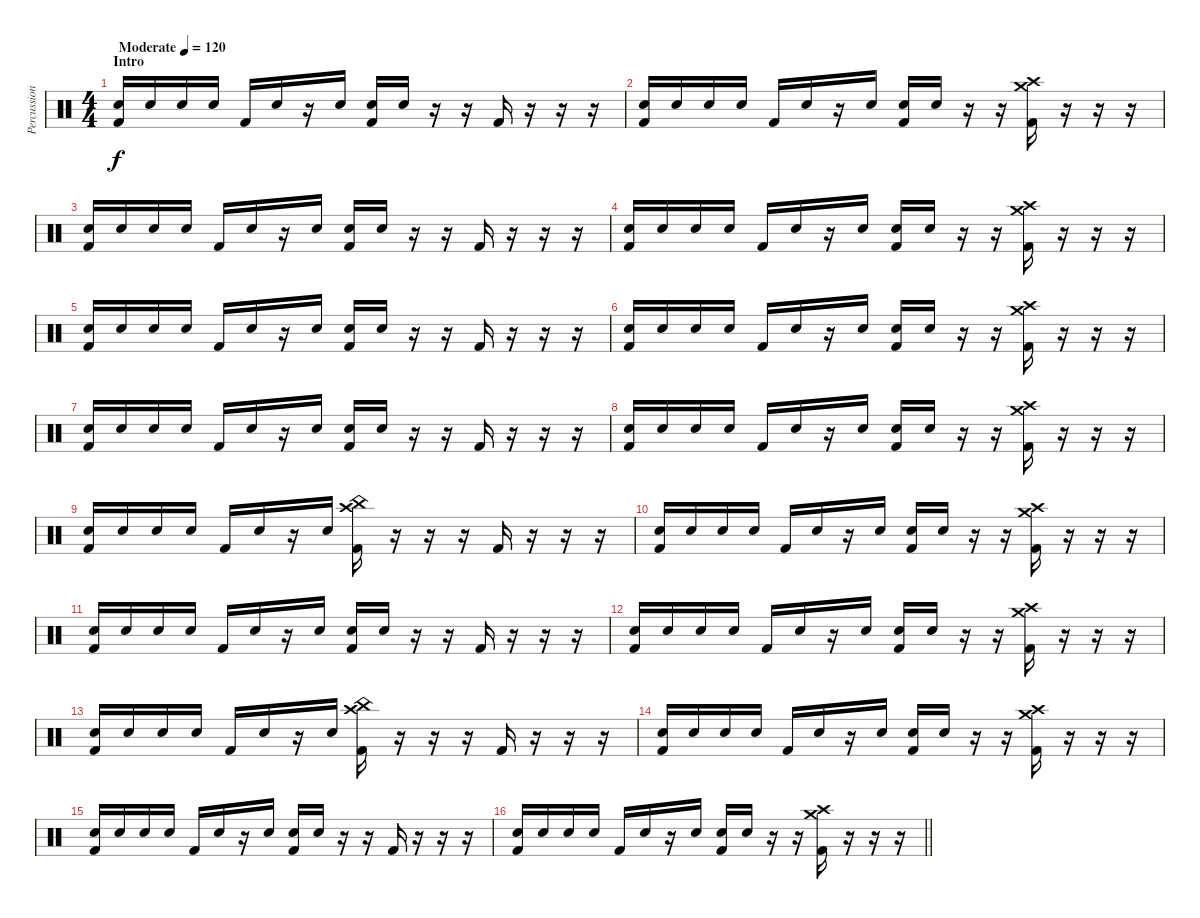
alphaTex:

\track ("Percussion" "Percussion") {instrument percussion}
\staff {score}
\articulation defaults
\ts (4 4)
\section ("" "Intro")
\tempo (120 "Moderate")
\clef neutral
\ks c
("Snare (hit) 2" "Kick (hit) 2").16{dy f} "Snare (hit) 2".16 "Snare (hit) 2".16 "Snare (hit) 2".16 "Kick (hit) 2".16 "Snare (hit) 2".16 r.16 "Snare (hit) 2".16 ("Snare (hit) 2" "Kick (hit) 2").16 "Snare (hit) 2".16 r.16 r.16 "Kick (hit) 2".16 r.16 r.16 r.16 |
("Snare (hit) 2" "Kick (hit) 2").16 "Snare (hit) 2".16 "Snare (hit) 2".16 "Snare (hit) 2".16 "Kick (hit) 2".16 "Snare (hit) 2".16 r.16 "Snare (hit) 2".16 ("Snare (hit) 2" "Kick (hit) 2").16 "Snare (hit) 2".16 r.16 r.16 ("Crash high (hit)" "Crash medium (hit)" "Kick (hit) 2").16 r.16 r.16 r.16 |
("Snare (hit) 2" "Kick (hit) 2").16 "Snare (hit) 2".16 "Snare (hit) 2".16 "Snare (hit) 2".16 "Kick (hit) 2".16 "Snare (hit) 2".16 r.16 "Snare (hit) 2".16 ("Snare (hit) 2" "Kick (hit) 2").16 "Snare (hit) 2".16 r.16 r.16 "Kick (hit) 2".16 r.16 r.16 r.16 |
("Snare (hit) 2" "Kick (hit) 2").16 "Snare (hit) 2".16 "Snare (hit) 2".16 "Snare (hit) 2".16 "Kick (hit) 2".16 "Snare (hit) 2".16 r.16 "Snare (hit) 2".16 ("Snare (hit) 2" "Kick (hit) 2").16 "Snare (hit) 2".16 r.16 r.16 ("Crash high (hit)" "Crash medium (hit)" "Kick (hit) 2").16 r.16 r.16 r.16 |
("Snare (hit) 2" "Kick (hit) 2").16 "Snare (hit) 2".16 "Snare (hit) 2".16 "Snare (hit) 2".16 "Kick (hit) 2".16 "Snare (hit) 2".16 r.16 "Snare (hit) 2".16 ("Snare (hit) 2" "Kick (hit) 2").16 "Snare (hit) 2".16 r.16 r.16 "Kick (hit) 2".16 r.16 r.16 r.16 |
("Snare (hit) 2" "Kick (hit) 2").16 "Snare (hit) 2".16 "Snare (hit) 2".16 "Snare (hit) 2".16 "Kick (hit) 2".16 "Snare (hit) 2".16 r.16 "Snare (hit) 2".16 ("Snare (hit) 2" "Kick (hit) 2").16 "Snare (hit) 2".16 r.16 r.16 ("Crash high (hit)" "Crash medium (hit)" "Kick (hit) 2").16 r.16 r.16 r.16 |
("Snare (hit) 2" "Kick (hit) 2").16 "Snare (hit) 2".16 "Snare (hit) 2".16 "Snare (hit) 2".16 "Kick (hit) 2".16 "Snare (hit) 2".16 r.16 "Snare (hit) 2".16 ("Snare (hit) 2" "Kick (hit) 2").16 "Snare (hit) 2".16 r.16 r.16 "Kick (hit) 2".16 r.16 r.16 r.16 |
("Snare (hit) 2" "Kick (hit) 2").16 "Snare (hit) 2".16 "Snare (hit) 2".16 "Snare (hit) 2".16 "Kick (hit) 2".16 "Snare (hit) 2".16 r.16 "Snare (hit) 2".16 ("Snare (hit) 2" "Kick (hit) 2").16 "Snare (hit) 2".16 r.16 r.16 ("Crash high (hit)" "Crash medium (hit)" "Kick (hit) 2").16 r.16 r.16 r.16 |
("Snare (hit) 2" "Kick (hit) 2").16 "Snare (hit) 2".16 "Snare (hit) 2".16 "Snare (hit) 2".16 "Kick (hit) 2".16 "Snare (hit) 2".16 r.16 "Snare (hit) 2".16 ("Crash high (hit)" "China (hit)" "Kick (hit) 2").16 r.16 r.16 r.16 "Kick (hit) 2".16 r.16 r.16 r.16 |
("Snare (hit) 2" "Kick (hit) 2").16 "Snare (hit) 2".16 "Snare (hit) 2".16 "Snare (hit) 2".16 "Kick (hit) 2".16 "Snare (hit) 2".16 r.16 "Snare (hit) 2".16 ("Snare (hit) 2" "Kick (hit) 2").16 "Snare (hit) 2".16 r.16 r.16 ("Crash high (hit)" "Crash medium (hit)" "Kick (hit) 2").16 r.16 r.16 r.16 |
("Snare (hit) 2" "Kick (hit) 2").16 "Snare (hit) 2".16 "Snare (hit) 2".16 "Snare (hit) 2".16 "Kick (hit) 2".16 "Snare (hit) 2".16 r.16 "Snare (hit) 2".16 ("Snare (hit) 2" "Kick (hit) 2").16 "Snare (hit) 2".16 r.16 r.16 "Kick (hit) 2".16 r.16 r.16 r.16 |
("Snare (hit) 2" "Kick (hit) 2").16 "Snare (hit) 2".16 "Snare (hit) 2".16 "Snare (hit) 2".16 "Kick (hit) 2".16 "Snare (hit) 2".16 r.16 "Snare (hit) 2".16 ("Snare (hit) 2" "Kick (hit) 2").16 "Snare (hit) 2".16 r.16 r.16 ("Crash high (hit)" "Crash medium (hit)" "Kick (hit) 2").16 r.16 r.16 r.16 |
("Snare (hit) 2" "Kick (hit) 2").16 "Snare (hit) 2".16 "Snare (hit) 2".16 "Snare (hit) 2".16 "Kick (hit) 2".16 "Snare (hit) 2".16 r.16 "Snare (hit) 2".16 ("Crash high (hit)" "China (hit)" "Kick (hit) 2").16 r.16 r.16 r.16 "Kick (hit) 2".16 r.16 r.16 r.16 |
("Snare (hit) 2" "Kick (hit) 2").16 "Snare (hit) 2".16 "Snare (hit) 2".16 "Snare (hit) 2".16 "Kick (hit) 2".16 "Snare (hit) 2".16 r.16 "Snare (hit) 2".16 ("Snare (hit) 2" "Kick (hit) 2").16 "Snare (hit) 2".16 r.16 r.16 ("Crash high (hit)" "Crash medium (hit)" "Kick (hit) 2").16 r.16 r.16 r.16 |
("Snare (hit) 2" "Kick (hit) 2").16 "Snare (hit) 2".16 "Snare (hit) 2".16 "Snare (hit) 2".16 "Kick (hit) 2".16 "Snare (hit) 2".16 r.16 "Snare (hit) 2".16 ("Snare (hit) 2" "Kick (hit) 2").16 "Snare (hit) 2".16 r.16 r.16 "Kick (hit) 2".16 r.16 r.16 r.16 |
\barLineRight lightlight
("Snare (hit) 2" "Kick (hit) 2").16 "Snare (hit) 2".16 "Snare (hit) 2".16 "Snare (hit) 2".16 "Kick (hit) 2".16 "Snare (hit) 2".16 r.16 "Snare (hit) 2".16 ("Snare (hit) 2" "Kick (hit) 2").16 "Snare (hit) 2".16 r.16 r.16 ("Crash high (hit)" "Crash medium (hit)" "Kick (hit) 2").16 r.16 r.16 r.16
